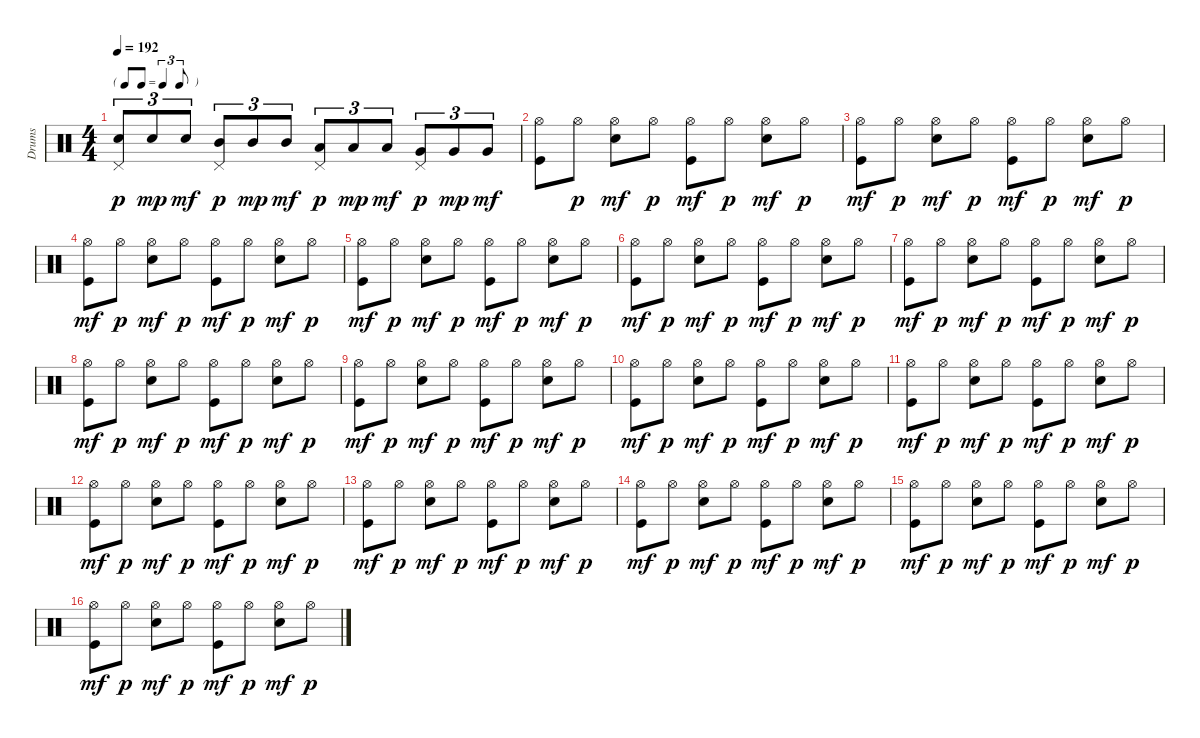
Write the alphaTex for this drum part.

\track ("Drums" "Drums") {instrument percussion}
\staff {score}
\articulation defaults
\ts (4 4)
\tf triplet8th
\tempo 192
\clef neutral
\ks c
("Pedal Hi-Hat (hit)" "Snare (hit) 2").8{tu (3 2) dy p} "Snare (hit) 2".8{tu (3 2) dy mp} "Snare (hit) 2".8{tu (3 2) dy mf} ("Pedal Hi-Hat (hit)" "Mid Tom (hit)").8{tu (3 2) dy p} "Mid Tom (hit)".8{tu (3 2) dy mp} "Mid Tom (hit)".8{tu (3 2) dy mf} ("Pedal Hi-Hat (hit)" "Low Tom (hit)").8{tu (3 2) dy p} "Low Tom (hit)".8{tu (3 2) dy mp} "Low Tom (hit)".8{tu (3 2) dy mf} ("Pedal Hi-Hat (hit)" "Very Low Tom (hit)").8{tu (3 2) dy p} "Very Low Tom (hit)".8{tu (3 2) dy mp} "Very Low Tom (hit)".8{tu (3 2) dy mf} |
("Hi-Hat (open)" "Kick (hit)").8 "Hi-Hat (open)".8{dy p} ("Hi-Hat (open)" "Snare (hit) 2").8{dy mf} "Hi-Hat (open)".8{dy p} ("Hi-Hat (open)" "Kick (hit)").8{dy mf} "Hi-Hat (open)".8{dy p} ("Hi-Hat (open)" "Snare (hit) 2").8{dy mf} "Hi-Hat (open)".8{dy p} |
("Hi-Hat (open)" "Kick (hit)").8{dy mf} "Hi-Hat (open)".8{dy p} ("Hi-Hat (open)" "Snare (hit) 2").8{dy mf} "Hi-Hat (open)".8{dy p} ("Hi-Hat (open)" "Kick (hit)").8{dy mf} "Hi-Hat (open)".8{dy p} ("Hi-Hat (open)" "Snare (hit) 2").8{dy mf} "Hi-Hat (open)".8{dy p} |
("Hi-Hat (open)" "Kick (hit)").8{dy mf} "Hi-Hat (open)".8{dy p} ("Hi-Hat (open)" "Snare (hit) 2").8{dy mf} "Hi-Hat (open)".8{dy p} ("Hi-Hat (open)" "Kick (hit)").8{dy mf} "Hi-Hat (open)".8{dy p} ("Hi-Hat (open)" "Snare (hit) 2").8{dy mf} "Hi-Hat (open)".8{dy p} |
("Hi-Hat (open)" "Kick (hit)").8{dy mf} "Hi-Hat (open)".8{dy p} ("Hi-Hat (open)" "Snare (hit) 2").8{dy mf} "Hi-Hat (open)".8{dy p} ("Hi-Hat (open)" "Kick (hit)").8{dy mf} "Hi-Hat (open)".8{dy p} ("Hi-Hat (open)" "Snare (hit) 2").8{dy mf} "Hi-Hat (open)".8{dy p} |
("Hi-Hat (open)" "Kick (hit)").8{dy mf} "Hi-Hat (open)".8{dy p} ("Hi-Hat (open)" "Snare (hit) 2").8{dy mf} "Hi-Hat (open)".8{dy p} ("Hi-Hat (open)" "Kick (hit)").8{dy mf} "Hi-Hat (open)".8{dy p} ("Hi-Hat (open)" "Snare (hit) 2").8{dy mf} "Hi-Hat (open)".8{dy p} |
("Hi-Hat (open)" "Kick (hit)").8{dy mf} "Hi-Hat (open)".8{dy p} ("Hi-Hat (open)" "Snare (hit) 2").8{dy mf} "Hi-Hat (open)".8{dy p} ("Hi-Hat (open)" "Kick (hit)").8{dy mf} "Hi-Hat (open)".8{dy p} ("Hi-Hat (open)" "Snare (hit) 2").8{dy mf} "Hi-Hat (open)".8{dy p} |
("Hi-Hat (open)" "Kick (hit)").8{dy mf} "Hi-Hat (open)".8{dy p} ("Hi-Hat (open)" "Snare (hit) 2").8{dy mf} "Hi-Hat (open)".8{dy p} ("Hi-Hat (open)" "Kick (hit)").8{dy mf} "Hi-Hat (open)".8{dy p} ("Hi-Hat (open)" "Snare (hit) 2").8{dy mf} "Hi-Hat (open)".8{dy p} |
("Hi-Hat (open)" "Kick (hit)").8{dy mf} "Hi-Hat (open)".8{dy p} ("Hi-Hat (open)" "Snare (hit) 2").8{dy mf} "Hi-Hat (open)".8{dy p} ("Hi-Hat (open)" "Kick (hit)").8{dy mf} "Hi-Hat (open)".8{dy p} ("Hi-Hat (open)" "Snare (hit) 2").8{dy mf} "Hi-Hat (open)".8{dy p} |
("Hi-Hat (open)" "Kick (hit)").8{dy mf} "Hi-Hat (open)".8{dy p} ("Hi-Hat (open)" "Snare (hit) 2").8{dy mf} "Hi-Hat (open)".8{dy p} ("Hi-Hat (open)" "Kick (hit)").8{dy mf} "Hi-Hat (open)".8{dy p} ("Hi-Hat (open)" "Snare (hit) 2").8{dy mf} "Hi-Hat (open)".8{dy p} |
("Hi-Hat (open)" "Kick (hit)").8{dy mf} "Hi-Hat (open)".8{dy p} ("Hi-Hat (open)" "Snare (hit) 2").8{dy mf} "Hi-Hat (open)".8{dy p} ("Hi-Hat (open)" "Kick (hit)").8{dy mf} "Hi-Hat (open)".8{dy p} ("Hi-Hat (open)" "Snare (hit) 2").8{dy mf} "Hi-Hat (open)".8{dy p} |
("Hi-Hat (open)" "Kick (hit)").8{dy mf} "Hi-Hat (open)".8{dy p} ("Hi-Hat (open)" "Snare (hit) 2").8{dy mf} "Hi-Hat (open)".8{dy p} ("Hi-Hat (open)" "Kick (hit)").8{dy mf} "Hi-Hat (open)".8{dy p} ("Hi-Hat (open)" "Snare (hit) 2").8{dy mf} "Hi-Hat (open)".8{dy p} |
("Hi-Hat (open)" "Kick (hit)").8{dy mf} "Hi-Hat (open)".8{dy p} ("Hi-Hat (open)" "Snare (hit) 2").8{dy mf} "Hi-Hat (open)".8{dy p} ("Hi-Hat (open)" "Kick (hit)").8{dy mf} "Hi-Hat (open)".8{dy p} ("Hi-Hat (open)" "Snare (hit) 2").8{dy mf} "Hi-Hat (open)".8{dy p} |
("Hi-Hat (open)" "Kick (hit)").8{dy mf} "Hi-Hat (open)".8{dy p} ("Hi-Hat (open)" "Snare (hit) 2").8{dy mf} "Hi-Hat (open)".8{dy p} ("Hi-Hat (open)" "Kick (hit)").8{dy mf} "Hi-Hat (open)".8{dy p} ("Hi-Hat (open)" "Snare (hit) 2").8{dy mf} "Hi-Hat (open)".8{dy p} |
("Hi-Hat (open)" "Kick (hit)").8{dy mf} "Hi-Hat (open)".8{dy p} ("Hi-Hat (open)" "Snare (hit) 2").8{dy mf} "Hi-Hat (open)".8{dy p} ("Hi-Hat (open)" "Kick (hit)").8{dy mf} "Hi-Hat (open)".8{dy p} ("Hi-Hat (open)" "Snare (hit) 2").8{dy mf} "Hi-Hat (open)".8{dy p} |
("Hi-Hat (open)" "Kick (hit)").8{dy mf} "Hi-Hat (open)".8{dy p} ("Hi-Hat (open)" "Snare (hit) 2").8{dy mf} "Hi-Hat (open)".8{dy p} ("Hi-Hat (open)" "Kick (hit)").8{dy mf} "Hi-Hat (open)".8{dy p} ("Hi-Hat (open)" "Snare (hit) 2").8{dy mf} "Hi-Hat (open)".8{dy p}
